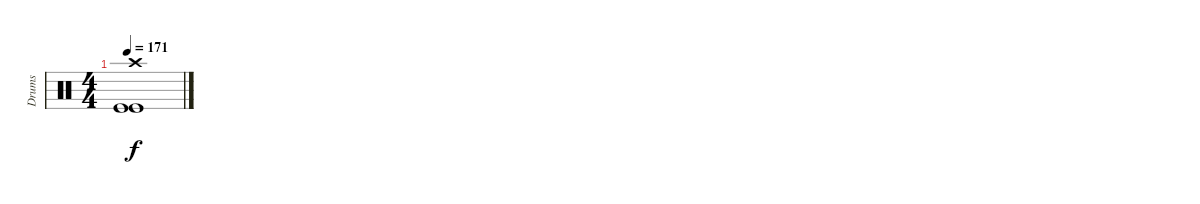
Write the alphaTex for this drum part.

\track ("Drums" "Drums") {instrument percussion}
\staff {score}
\articulation defaults
\ts (4 4)
\tempo 171
\clef neutral
\ks c
("Crash high (hit)" "Kick (hit)" "Kick (hit)").1{dy f}
